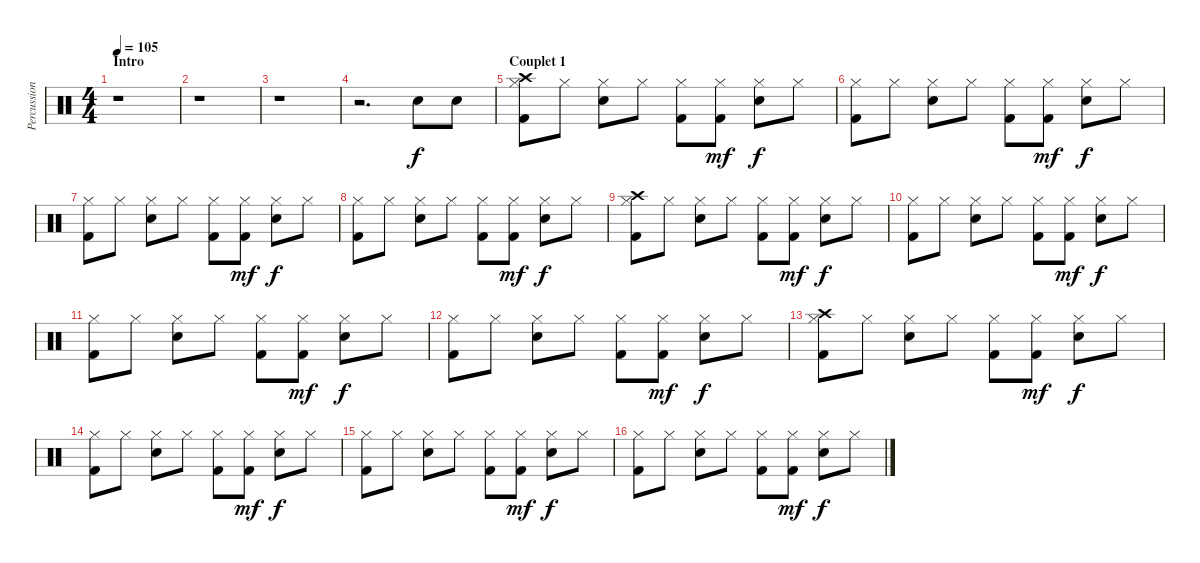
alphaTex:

\track ("Percussions" "Percussion") {instrument percussion}
\staff {score}
\articulation defaults
\ts (4 4)
\section ("" "Intro")
\tempo 105
\clef neutral
\ks c
r.1{dy f} |
r.1 |
r.1 |
r.2{d} "Electric Snare (hit)".8 "Electric Snare (hit)".8 |
\section ("" "Couplet 1")
("Hi-Hat (closed)" "Crash high (hit)" "Kick (hit) 2").8 "Hi-Hat (closed)".8 ("Hi-Hat (closed)" "Electric Snare (hit)").8 "Hi-Hat (closed)".8 ("Hi-Hat (closed)" "Kick (hit) 2").8 ("Hi-Hat (closed)" "Kick (hit) 2").8{dy mf} ("Hi-Hat (closed)" "Electric Snare (hit)").8{dy f} "Hi-Hat (closed)".8 |
("Hi-Hat (closed)" "Kick (hit) 2").8 "Hi-Hat (closed)".8 ("Hi-Hat (closed)" "Electric Snare (hit)").8 "Hi-Hat (closed)".8 ("Hi-Hat (closed)" "Kick (hit) 2").8 ("Hi-Hat (closed)" "Kick (hit) 2").8{dy mf} ("Hi-Hat (closed)" "Electric Snare (hit)").8{dy f} "Hi-Hat (closed)".8 |
("Hi-Hat (closed)" "Kick (hit) 2").8 "Hi-Hat (closed)".8 ("Hi-Hat (closed)" "Electric Snare (hit)").8 "Hi-Hat (closed)".8 ("Hi-Hat (closed)" "Kick (hit) 2").8 ("Hi-Hat (closed)" "Kick (hit) 2").8{dy mf} ("Hi-Hat (closed)" "Electric Snare (hit)").8{dy f} "Hi-Hat (closed)".8 |
("Hi-Hat (closed)" "Kick (hit) 2").8 "Hi-Hat (closed)".8 ("Hi-Hat (closed)" "Electric Snare (hit)").8 "Hi-Hat (closed)".8 ("Hi-Hat (closed)" "Kick (hit) 2").8 ("Hi-Hat (closed)" "Kick (hit) 2").8{dy mf} ("Hi-Hat (closed)" "Electric Snare (hit)").8{dy f} "Hi-Hat (closed)".8 |
("Hi-Hat (closed)" "Crash high (hit)" "Kick (hit) 2").8 "Hi-Hat (closed)".8 ("Hi-Hat (closed)" "Electric Snare (hit)").8 "Hi-Hat (closed)".8 ("Hi-Hat (closed)" "Kick (hit) 2").8 ("Hi-Hat (closed)" "Kick (hit) 2").8{dy mf} ("Hi-Hat (closed)" "Electric Snare (hit)").8{dy f} "Hi-Hat (closed)".8 |
("Hi-Hat (closed)" "Kick (hit) 2").8 "Hi-Hat (closed)".8 ("Hi-Hat (closed)" "Electric Snare (hit)").8 "Hi-Hat (closed)".8 ("Hi-Hat (closed)" "Kick (hit) 2").8 ("Hi-Hat (closed)" "Kick (hit) 2").8{dy mf} ("Hi-Hat (closed)" "Electric Snare (hit)").8{dy f} "Hi-Hat (closed)".8 |
("Hi-Hat (closed)" "Kick (hit) 2").8 "Hi-Hat (closed)".8 ("Hi-Hat (closed)" "Electric Snare (hit)").8 "Hi-Hat (closed)".8 ("Hi-Hat (closed)" "Kick (hit) 2").8 ("Hi-Hat (closed)" "Kick (hit) 2").8{dy mf} ("Hi-Hat (closed)" "Electric Snare (hit)").8{dy f} "Hi-Hat (closed)".8 |
("Hi-Hat (closed)" "Kick (hit) 2").8 "Hi-Hat (closed)".8 ("Hi-Hat (closed)" "Electric Snare (hit)").8 "Hi-Hat (closed)".8 ("Hi-Hat (closed)" "Kick (hit) 2").8 ("Hi-Hat (closed)" "Kick (hit) 2").8{dy mf} ("Hi-Hat (closed)" "Electric Snare (hit)").8{dy f} "Hi-Hat (closed)".8 |
("Hi-Hat (closed)" "Crash high (hit)" "Kick (hit) 2").8 "Hi-Hat (closed)".8 ("Hi-Hat (closed)" "Electric Snare (hit)").8 "Hi-Hat (closed)".8 ("Hi-Hat (closed)" "Kick (hit) 2").8 ("Hi-Hat (closed)" "Kick (hit) 2").8{dy mf} ("Hi-Hat (closed)" "Electric Snare (hit)").8{dy f} "Hi-Hat (closed)".8 |
("Hi-Hat (closed)" "Kick (hit) 2").8 "Hi-Hat (closed)".8 ("Hi-Hat (closed)" "Electric Snare (hit)").8 "Hi-Hat (closed)".8 ("Hi-Hat (closed)" "Kick (hit) 2").8 ("Hi-Hat (closed)" "Kick (hit) 2").8{dy mf} ("Hi-Hat (closed)" "Electric Snare (hit)").8{dy f} "Hi-Hat (closed)".8 |
("Hi-Hat (closed)" "Kick (hit) 2").8 "Hi-Hat (closed)".8 ("Hi-Hat (closed)" "Electric Snare (hit)").8 "Hi-Hat (closed)".8 ("Hi-Hat (closed)" "Kick (hit) 2").8 ("Hi-Hat (closed)" "Kick (hit) 2").8{dy mf} ("Hi-Hat (closed)" "Electric Snare (hit)").8{dy f} "Hi-Hat (closed)".8 |
("Hi-Hat (closed)" "Kick (hit) 2").8 "Hi-Hat (closed)".8 ("Hi-Hat (closed)" "Electric Snare (hit)").8 "Hi-Hat (closed)".8 ("Hi-Hat (closed)" "Kick (hit) 2").8 ("Hi-Hat (closed)" "Kick (hit) 2").8{dy mf} ("Hi-Hat (closed)" "Electric Snare (hit)").8{dy f} "Hi-Hat (closed)".8
